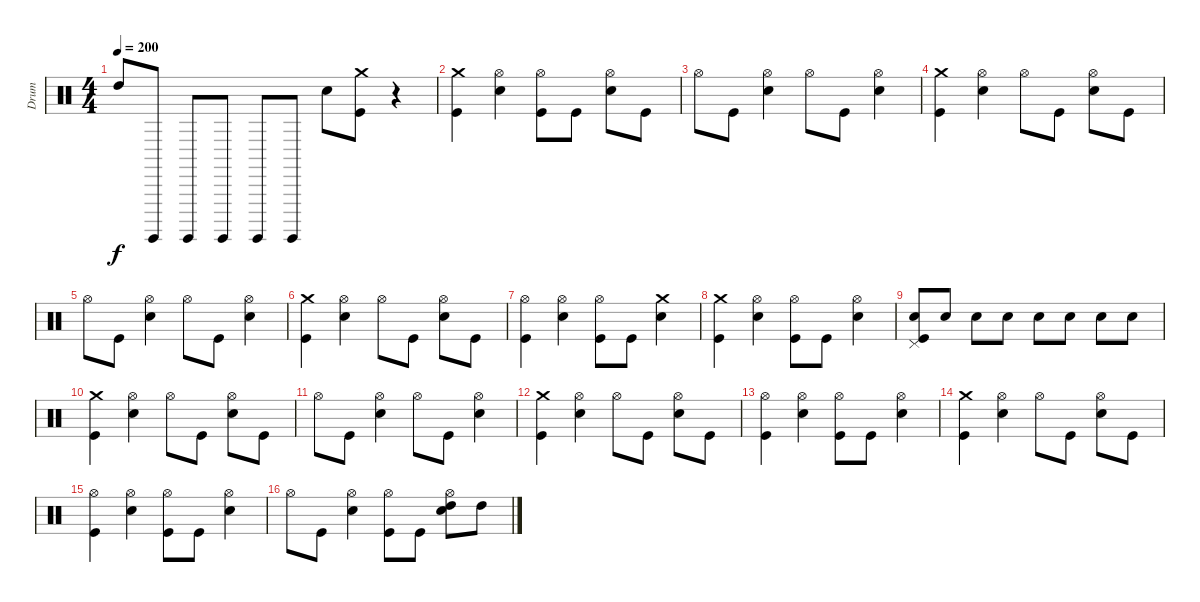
\track ("Drum" "Drum") {instrument percussion}
\staff {score}
\articulation defaults
\ts (4 4)
\tempo 200
\clef neutral
\ks c "High Tom (hit)".8{dy f} "Surdo (hit)".8 "Surdo (hit)".8 "Surdo (hit)".8 "Surdo (hit)".8 "Surdo (hit)".8 "Snare (hit) 2".8
("Crash medium (hit)" "Kick (hit)").8 r.4 |
("Crash medium (hit)" "Kick (hit)").4 ("Hi-Hat (open)" "Snare (hit) 2").4 ("Hi-Hat (open)" "Kick (hit)").8 "Kick (hit)".8 ("Hi-Hat (open)" "Snare (hit) 2").8 "Kick (hit)".8 |
"Hi-Hat (open)".8 "Kick (hit)".8 ("Hi-Hat (open)" "Snare (hit) 2").4 "Hi-Hat (open)".8 "Kick (hit)".8 ("Hi-Hat (open)" "Snare (hit) 2").4 |
("Crash medium (hit)" "Kick (hit)").4 ("Hi-Hat (open)" "Snare (hit) 2").4 "Hi-Hat (open)".8 "Kick (hit)".8 ("Hi-Hat (open)" "Snare (hit) 2").8 "Kick (hit)".8 |
"Hi-Hat (open)".8 "Kick (hit)".8 ("Hi-Hat (open)" "Snare (hit) 2").4 "Hi-Hat (open)".8 "Kick (hit)".8 ("Hi-Hat (open)" "Snare (hit) 2").4 |
("Crash medium (hit)" "Kick (hit)").4 ("Hi-Hat (open)" "Snare (hit) 2").4 "Hi-Hat (open)".8 "Kick (hit)".8 ("Hi-Hat (open)" "Snare (hit) 2").8 "Kick (hit)".8 |
("Hi-Hat (open)" "Kick (hit)").4 ("Hi-Hat (open)" "Snare (hit) 2").4 ("Hi-Hat (open)" "Kick (hit)").8 "Kick (hit)".8 ("Crash medium (hit)" "Snare (hit) 2").4 |
("Crash medium (hit)" "Kick (hit)").4 ("Hi-Hat (open)" "Snare (hit) 2").4 ("Hi-Hat (open)" "Kick (hit)").8 "Kick (hit)".8 ("Hi-Hat (open)" "Snare (hit) 2").4 |
("Pedal Hi-Hat (hit)" "Snare (hit) 2" "Kick (hit)").8 "Snare (hit) 2".8 "Snare (hit) 2".8 "Snare (hit) 2".8 "Snare (hit) 2".8 "Snare (hit) 2".8 "Snare (hit) 2".8 "Snare (hit) 2".8 |
("Crash medium (hit)" "Kick (hit)").4 ("Hi-Hat (open)" "Snare (hit) 2").4 "Hi-Hat (open)".8 "Kick (hit)".8 ("Hi-Hat (open)" "Snare (hit) 2").8 "Kick (hit)".8 |
"Hi-Hat (open)".8 "Kick (hit)".8 ("Hi-Hat (open)" "Snare (hit) 2").4 "Hi-Hat (open)".8 "Kick (hit)".8 ("Hi-Hat (open)" "Snare (hit) 2").4 |
("Crash medium (hit)" "Kick (hit)").4 ("Hi-Hat (open)" "Snare (hit) 2").4 "Hi-Hat (open)".8 "Kick (hit)".8 ("Hi-Hat (open)" "Snare (hit) 2").8 "Kick (hit)".8 |
("Hi-Hat (open)" "Kick (hit)").4 ("Hi-Hat (open)" "Snare (hit) 2").4 ("Hi-Hat (open)" "Kick (hit)").8 "Kick (hit)".8 ("Hi-Hat (open)" "Snare (hit) 2").4 |
("Crash medium (hit)" "Kick (hit)").4 ("Hi-Hat (open)" "Snare (hit) 2").4 "Hi-Hat (open)".8 "Kick (hit)".8 ("Hi-Hat (open)" "Snare (hit) 2").8 "Kick (hit)".8 |
("Hi-Hat (open)" "Kick (hit)").4 ("Hi-Hat (open)" "Snare (hit) 2").4 ("Hi-Hat (open)" "Kick (hit)").8 "Kick (hit)".8 ("Hi-Hat (open)" "Snare (hit) 2").4 |
"Hi-Hat (open)".8 "Kick (hit)".8 ("Hi-Hat (open)" "Snare (hit) 2").4 ("Hi-Hat (open)" "Kick (hit)").8 "Kick (hit)".8 ("Hi-Hat (open)" "High Tom (hit)" "Snare (hit) 2").8 "High Tom (hit)".8
